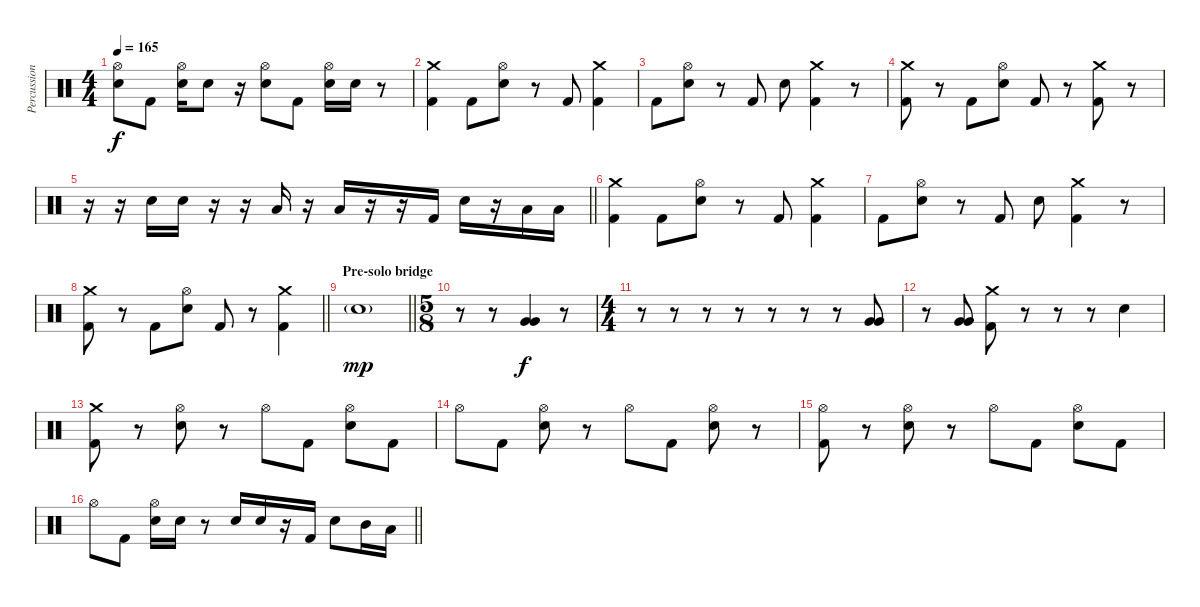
\track ("Percussion" "Percussion") {instrument percussion}
\staff {score}
\articulation defaults
\ts (4 4)
\tempo 165
\clef neutral
\ks c
("Hi-Hat (open)" "Electric Snare (hit)").8{dy f} "Kick (hit) 2".8 ("Hi-Hat (open)" "Electric Snare (hit)").16 "Electric Snare (hit)".8 r.16 ("Hi-Hat (open)" "Electric Snare (hit)").8 "Kick (hit) 2".8 ("Hi-Hat (open)" "Electric Snare (hit)").16 "Electric Snare (hit)".16 r.8 |
("Crash medium (hit)" "Kick (hit) 2").4 "Kick (hit) 2".8 ("Hi-Hat (open)" "Electric Snare (hit)").8 r.8 "Kick (hit) 2".8 ("Crash medium (hit)" "Kick (hit) 2").4 |
"Kick (hit) 2".8 ("Hi-Hat (open)" "Electric Snare (hit)").8 r.8 "Kick (hit) 2".8 "Electric Snare (hit)".8 ("Crash medium (hit)" "Kick (hit) 2").4 r.8 |
("Crash medium (hit)" "Kick (hit) 2").8 r.8 "Kick (hit) 2".8 ("Hi-Hat (open)" "Electric Snare (hit)").8 "Kick (hit) 2".8 r.8 ("Crash medium (hit)" "Kick (hit) 2").8 r.8 |
\barLineRight lightlight
r.16 r.16 "Electric Snare (hit)".16 "Electric Snare (hit)".16 r.16 r.16 "Low Tom (hit)".16 r.16 "Low Tom (hit)".16 r.16 r.16 "Kick (hit) 2".16 "Electric Snare (hit)".16 r.16 "Low Tom (hit)".16 "Low Tom (hit)".16 |
("Crash medium (hit)" "Kick (hit) 2").4 "Kick (hit) 2".8 ("Hi-Hat (open)" "Electric Snare (hit)").8 r.8 "Kick (hit) 2".8 ("Crash medium (hit)" "Kick (hit) 2").4 |
"Kick (hit) 2".8 ("Hi-Hat (open)" "Electric Snare (hit)").8 r.8 "Kick (hit) 2".8 "Electric Snare (hit)".8 ("Crash medium (hit)" "Kick (hit) 2").4 r.8 |
\barLineRight lightlight
("Crash medium (hit)" "Kick (hit) 2").8 r.8 "Kick (hit) 2".8 ("Hi-Hat (open)" "Electric Snare (hit)").8 "Kick (hit) 2".8 r.8 ("Crash medium (hit)" "Kick (hit) 2").4 |
\section ("" "Pre-solo bridge")
\barLineRight lightlight "Snare (hit)"{g}.1{dy mp}
|
\ts (5 8)
r.8 r.8 ("Very Low Tom (hit)" "Very Low Tom (hit)").4{dy f} r.8 |
\ts (4 4)
r.8 r.8 r.8 r.8 r.8 r.8 r.8 ("Very Low Tom (hit)" "Very Low Tom (hit)").8 |
r.8 ("Very Low Tom (hit)" "Very Low Tom (hit)").8 ("Kick (hit) 2" "Crash medium (hit)").8 r.8 r.8 r.8 "Electric Snare (hit)".4 |
("Crash medium (hit)" "Kick (hit) 2").8 r.8 ("Hi-Hat (open)" "Electric Snare (hit)").8 r.8 "Hi-Hat (open)".8 "Kick (hit) 2".8 ("Hi-Hat (open)" "Electric Snare (hit)").8 "Kick (hit) 2".8 |
"Hi-Hat (open)".8 "Kick (hit) 2".8 ("Hi-Hat (open)" "Electric Snare (hit)").8 r.8 "Hi-Hat (open)".8 "Kick (hit) 2".8 ("Hi-Hat (open)" "Electric Snare (hit)").8 r.8 |
("Hi-Hat (open)" "Kick (hit) 2").8 r.8 ("Hi-Hat (open)" "Electric Snare (hit)").8 r.8 "Hi-Hat (open)".8 "Kick (hit) 2".8 ("Hi-Hat (open)" "Electric Snare (hit)").8 "Kick (hit) 2".8 |
\barLineRight lightlight "Hi-Hat (open)".8 "Kick (hit) 2".8
("Hi-Hat (open)" "Electric Snare (hit)").16 "Electric Snare (hit)".16 r.8 "Electric Snare (hit)".16 "Electric Snare (hit)".16 r.16 "Kick (hit) 2".16 "Electric Snare (hit)".8 "Mid Tom (hit)".16 "Low Tom (hit)".16
